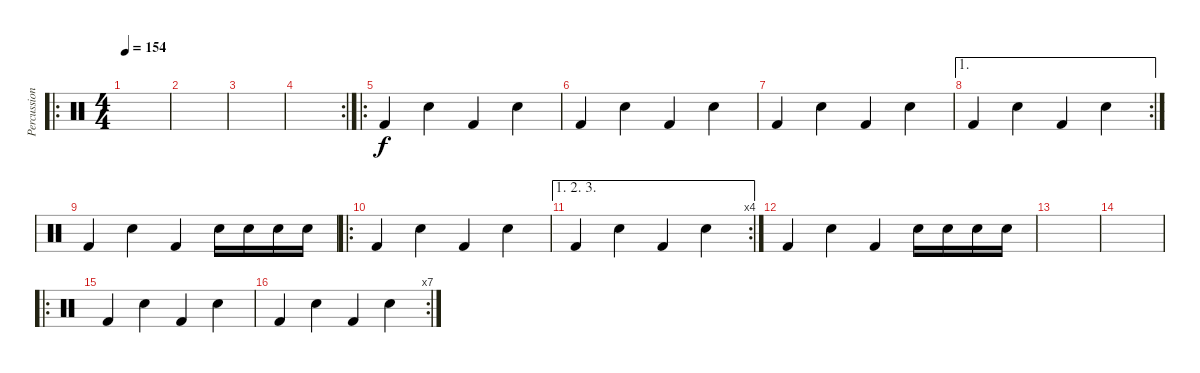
\track ("Percussions" "Percussion") {instrument percussion}
\staff {score}
\articulation defaults
\ro
\ts (4 4)
\tempo 154
\clef neutral
\ks c
|
|
|
\rc 2
|
\ro "Kick (hit) 2".4 "Electric Snare (hit)".4 "Kick (hit) 2".4 "Electric Snare (hit)".4
|
"Kick (hit) 2".4 "Electric Snare (hit)".4 "Kick (hit) 2".4 "Electric Snare (hit)".4 |
"Kick (hit) 2".4 "Electric Snare (hit)".4 "Kick (hit) 2".4 "Electric Snare (hit)".4 |
\ae 1
\rc 2 "Kick (hit) 2".4 "Electric Snare (hit)".4 "Kick (hit) 2".4 "Electric Snare (hit)".4
|
"Kick (hit) 2".4 "Electric Snare (hit)".4 "Kick (hit) 2".4 "Electric Snare (hit)".16 "Electric Snare (hit)".16 "Electric Snare (hit)".16 "Electric Snare (hit)".16 |
\ro "Kick (hit) 2".4 "Electric Snare (hit)".4 "Kick (hit) 2".4 "Electric Snare (hit)".4
|
\ae (1 2 3)
\rc 4 "Kick (hit) 2".4 "Electric Snare (hit)".4 "Kick (hit) 2".4 "Electric Snare (hit)".4
|
"Kick (hit) 2".4 "Electric Snare (hit)".4 "Kick (hit) 2".4 "Electric Snare (hit)".16 "Electric Snare (hit)".16 "Electric Snare (hit)".16 "Electric Snare (hit)".16 |
|
|
\ro "Kick (hit) 2".4 "Electric Snare (hit)".4 "Kick (hit) 2".4 "Electric Snare (hit)".4
|
\rc 7 "Kick (hit) 2".4 "Electric Snare (hit)".4 "Kick (hit) 2".4 "Electric Snare (hit)".4
